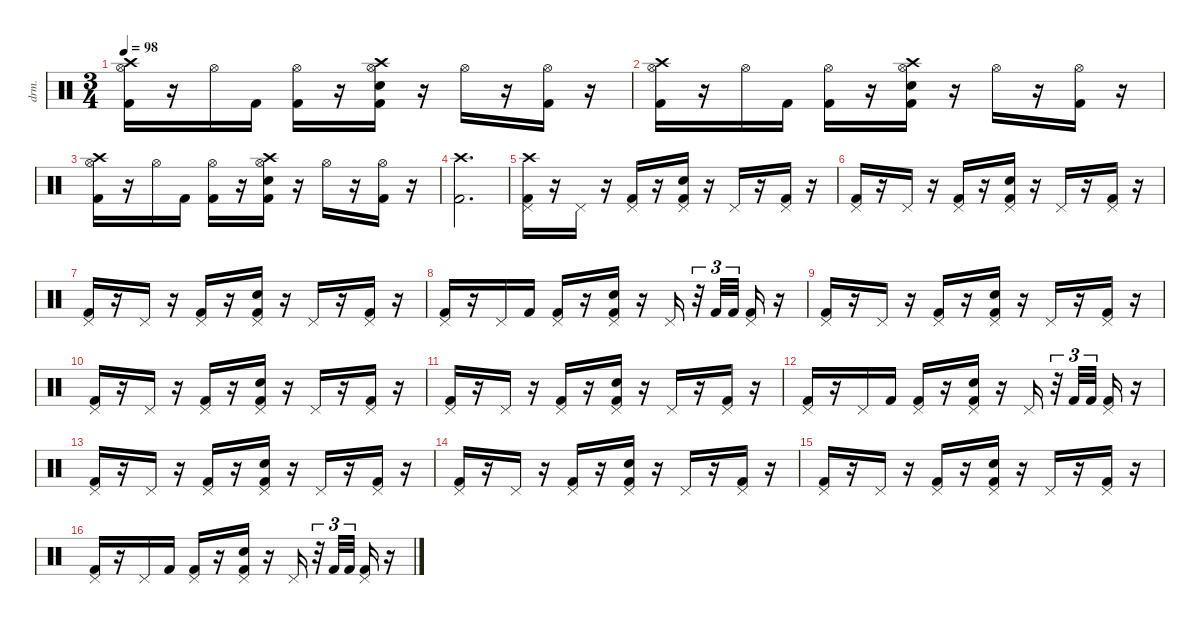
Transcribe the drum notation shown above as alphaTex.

\defaultSystemsLayout 4
\hideDynamics
\bracketExtendMode nobrackets
\otherSystemsTrackNameOrientation horizontal
\track ("Ударные" "drm.") {instrument percussion}
\staff {score}
\articulation defaults
\ts (3 4)
\tempo 98
\clef neutral
\ks c
("Crash high (hit)" "Kick (hit) 2" "Hi-Hat (open)").16{dy fff beam Down} r.16{beam Down} "Hi-Hat (open)".16{dy f beam Down} "Kick (hit) 2".16{dy mf beam Down} ("Kick (hit) 2" "Hi-Hat (open)").16{dy f beam Down} r.16{beam Down} ("Crash high (hit)" "Snare (hit) 2" "Kick (hit) 2" "Hi-Hat (open)").16{beam Down} r.16{beam Down} "Hi-Hat (open)".16{beam Down} r.16{beam Down} ("Kick (hit) 2" "Hi-Hat (open)").16{beam Down} r.16{beam Down} |
("Crash high (hit)" "Kick (hit) 2" "Hi-Hat (open)").16{dy fff beam Down} r.16{beam Down} "Hi-Hat (open)".16{dy f beam Down} "Kick (hit) 2".16{beam Down} ("Kick (hit) 2" "Hi-Hat (open)").16{beam Down} r.16{beam Down} ("Crash high (hit)" "Snare (hit) 2" "Kick (hit) 2" "Hi-Hat (open)").16{beam Down} r.16{beam Down} "Hi-Hat (open)".16{beam Down} r.16{beam Down} ("Kick (hit) 2" "Hi-Hat (open)").16{beam Down} r.16{beam Down} |
("Crash high (hit)" "Kick (hit) 2" "Hi-Hat (open)").16{dy fff beam Down} r.16{beam Down} "Hi-Hat (open)".16{dy f beam Down} "Kick (hit) 2".16{beam Down} ("Kick (hit) 2" "Hi-Hat (open)").16{beam Down} r.16{beam Down} ("Crash high (hit)" "Snare (hit) 2" "Kick (hit) 2" "Hi-Hat (open)").16{beam Down} r.16{beam Down} "Hi-Hat (open)".16{beam Down} r.16{beam Down} ("Kick (hit) 2" "Hi-Hat (open)").16{beam Down} r.16{beam Down} |
("Kick (hit) 2" "Crash high (hit)").2{d beam Down} |
("Crash high (hit)" "Kick (hit) 2" "Pedal Hi-Hat (hit)").16{beam Down} r.16{beam Down} "Pedal Hi-Hat (hit)".16{beam Down} r.16{beam Down} ("Kick (hit) 2" "Pedal Hi-Hat (hit)").16{beam Up} r.16{beam Up} ("Snare (hit) 2" "Kick (hit) 2" "Pedal Hi-Hat (hit)").16{beam Up} r.16{beam Up} "Pedal Hi-Hat (hit)".16{beam Up} r.16{beam Up} ("Kick (hit) 2" "Pedal Hi-Hat (hit)").16{beam Up} r.16{beam Up} |
("Kick (hit) 2" "Pedal Hi-Hat (hit)").16{beam Up} r.16{beam Up} "Pedal Hi-Hat (hit)".16{beam Up} r.16{beam Up} ("Kick (hit) 2" "Pedal Hi-Hat (hit)").16{beam Up} r.16{beam Up} ("Snare (hit) 2" "Kick (hit) 2" "Pedal Hi-Hat (hit)").16{beam Up} r.16{beam Up} "Pedal Hi-Hat (hit)".16{beam Up} r.16{beam Up} ("Kick (hit) 2" "Pedal Hi-Hat (hit)").16{beam Up} r.16{beam Up} |
("Kick (hit) 2" "Pedal Hi-Hat (hit)").16{beam Up} r.16{beam Up} "Pedal Hi-Hat (hit)".16{beam Up} r.16{beam Up} ("Kick (hit) 2" "Pedal Hi-Hat (hit)").16{beam Up} r.16{beam Up} ("Snare (hit) 2" "Kick (hit) 2" "Pedal Hi-Hat (hit)").16{beam Up} r.16{beam Up} "Pedal Hi-Hat (hit)".16{beam Up} r.16{beam Up} ("Kick (hit) 2" "Pedal Hi-Hat (hit)").16{beam Up} r.16{beam Up} |
("Kick (hit) 2" "Pedal Hi-Hat (hit)").16{beam Up} r.16{beam Up} "Pedal Hi-Hat (hit)".16{beam Up} "Kick (hit) 2".16{dy mf beam Up} ("Kick (hit) 2" "Pedal Hi-Hat (hit)").16{dy f beam Up} r.16{beam Up} ("Snare (hit) 2" "Kick (hit) 2" "Pedal Hi-Hat (hit)").16{beam Up} r.16{beam Up} "Pedal Hi-Hat (hit)".16{dy mf beam Up} r.32{tu (3 2) beam Up} "Kick (hit) 2".32{tu (3 2) beam Up} "Kick (hit) 2".32{tu (3 2) beam Up} ("Kick (hit) 2" "Pedal Hi-Hat (hit)").16{beam Up} r.16{beam Up} |
("Kick (hit) 2" "Pedal Hi-Hat (hit)").16{dy f beam Up} r.16{beam Up} "Pedal Hi-Hat (hit)".16{beam Up} r.16{beam Up} ("Kick (hit) 2" "Pedal Hi-Hat (hit)").16{beam Up} r.16{beam Up} ("Snare (hit) 2" "Kick (hit) 2" "Pedal Hi-Hat (hit)").16{beam Up} r.16{beam Up} "Pedal Hi-Hat (hit)".16{beam Up} r.16{beam Up} ("Kick (hit) 2" "Pedal Hi-Hat (hit)").16{beam Up} r.16{beam Up} |
("Kick (hit) 2" "Pedal Hi-Hat (hit)").16{beam Up} r.16{beam Up} "Pedal Hi-Hat (hit)".16{beam Up} r.16{beam Up} ("Kick (hit) 2" "Pedal Hi-Hat (hit)").16{beam Up} r.16{beam Up} ("Snare (hit) 2" "Kick (hit) 2" "Pedal Hi-Hat (hit)").16{beam Up} r.16{beam Up} "Pedal Hi-Hat (hit)".16{beam Up} r.16{beam Up} ("Kick (hit) 2" "Pedal Hi-Hat (hit)").16{beam Up} r.16{beam Up} |
("Kick (hit) 2" "Pedal Hi-Hat (hit)").16{beam Up} r.16{beam Up} "Pedal Hi-Hat (hit)".16{beam Up} r.16{beam Up} ("Kick (hit) 2" "Pedal Hi-Hat (hit)").16{beam Up} r.16{beam Up} ("Snare (hit) 2" "Kick (hit) 2" "Pedal Hi-Hat (hit)").16{beam Up} r.16{beam Up} "Pedal Hi-Hat (hit)".16{beam Up} r.16{beam Up} ("Kick (hit) 2" "Pedal Hi-Hat (hit)").16{beam Up} r.16{beam Up} |
("Kick (hit) 2" "Pedal Hi-Hat (hit)").16{beam Up} r.16{beam Up} "Pedal Hi-Hat (hit)".16{beam Up} "Kick (hit) 2".16{dy mf beam Up} ("Kick (hit) 2" "Pedal Hi-Hat (hit)").16{dy f beam Up} r.16{beam Up} ("Snare (hit) 2" "Kick (hit) 2" "Pedal Hi-Hat (hit)").16{beam Up} r.16{beam Up} "Pedal Hi-Hat (hit)".16{dy mf beam Up} r.32{tu (3 2) beam Up} "Kick (hit) 2".32{tu (3 2) beam Up} "Kick (hit) 2".32{tu (3 2) beam Up} ("Kick (hit) 2" "Pedal Hi-Hat (hit)").16{beam Up} r.16{beam Up} |
("Kick (hit) 2" "Pedal Hi-Hat (hit)").16{dy f beam Up} r.16{beam Up} "Pedal Hi-Hat (hit)".16{beam Up} r.16{beam Up} ("Kick (hit) 2" "Pedal Hi-Hat (hit)").16{beam Up} r.16{beam Up} ("Snare (hit) 2" "Kick (hit) 2" "Pedal Hi-Hat (hit)").16{beam Up} r.16{beam Up} "Pedal Hi-Hat (hit)".16{beam Up} r.16{beam Up} ("Kick (hit) 2" "Pedal Hi-Hat (hit)").16{beam Up} r.16{beam Up} |
("Kick (hit) 2" "Pedal Hi-Hat (hit)").16{beam Up} r.16{beam Up} "Pedal Hi-Hat (hit)".16{beam Up} r.16{beam Up} ("Kick (hit) 2" "Pedal Hi-Hat (hit)").16{beam Up} r.16{beam Up} ("Snare (hit) 2" "Kick (hit) 2" "Pedal Hi-Hat (hit)").16{beam Up} r.16{beam Up} "Pedal Hi-Hat (hit)".16{beam Up} r.16{beam Up} ("Kick (hit) 2" "Pedal Hi-Hat (hit)").16{beam Up} r.16{beam Up} |
("Kick (hit) 2" "Pedal Hi-Hat (hit)").16{beam Up} r.16{beam Up} "Pedal Hi-Hat (hit)".16{beam Up} r.16{beam Up} ("Kick (hit) 2" "Pedal Hi-Hat (hit)").16{beam Up} r.16{beam Up} ("Snare (hit) 2" "Kick (hit) 2" "Pedal Hi-Hat (hit)").16{beam Up} r.16{beam Up} "Pedal Hi-Hat (hit)".16{beam Up} r.16{beam Up} ("Kick (hit) 2" "Pedal Hi-Hat (hit)").16{beam Up} r.16{beam Up} |
("Kick (hit) 2" "Pedal Hi-Hat (hit)").16{beam Up} r.16{beam Up} "Pedal Hi-Hat (hit)".16{beam Up} "Kick (hit) 2".16{dy mf beam Up} ("Kick (hit) 2" "Pedal Hi-Hat (hit)").16{dy f beam Up} r.16{beam Up} ("Snare (hit) 2" "Kick (hit) 2" "Pedal Hi-Hat (hit)").16{beam Up} r.16{beam Up} "Pedal Hi-Hat (hit)".16{dy mf beam Up} r.32{tu (3 2) beam Up} "Kick (hit) 2".32{tu (3 2) beam Up} "Kick (hit) 2".32{tu (3 2) beam Up} ("Kick (hit) 2" "Pedal Hi-Hat (hit)").16{beam Up} r.16{beam Up}
